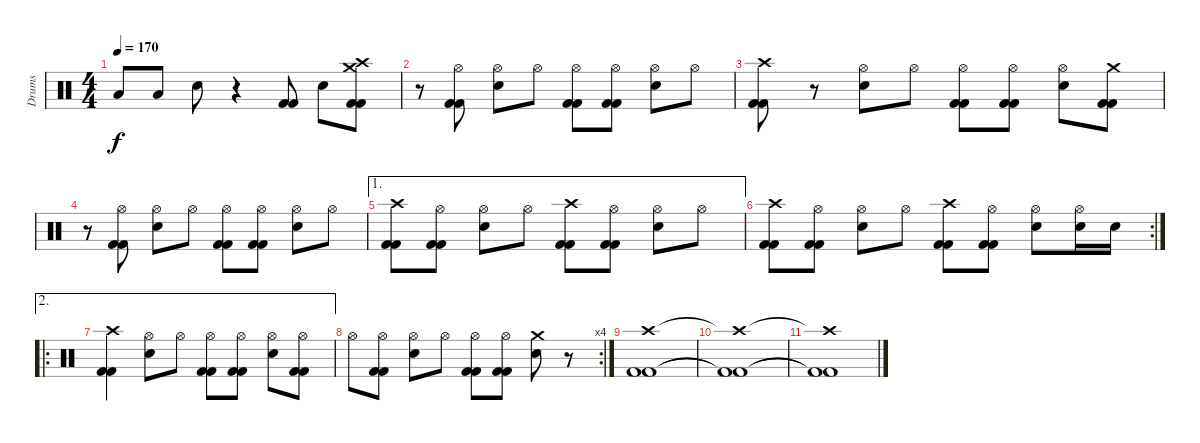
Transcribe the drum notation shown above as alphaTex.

\track ("Drums" "Drums") {instrument percussion}
\staff {score}
\articulation defaults
\ts (4 4)
\tempo 170
\clef neutral
\ks c "Low Tom (hit)".8{dy f} "Low Tom (hit)".8 "Snare (hit) 2".8
r.4 ("Kick (hit) 2" "Kick (hit) 2").8 "Snare (hit) 2".8 ("Crash high (hit)" "Crash medium (hit)" "Kick (hit) 2" "Kick (hit) 2").8 |
r.8 ("Hi-Hat (open)" "Kick (hit) 2" "Kick (hit) 2").8 ("Hi-Hat (open)" "Snare (hit) 2").8 "Hi-Hat (open)".8 ("Hi-Hat (open)" "Kick (hit) 2" "Kick (hit) 2").8 ("Hi-Hat (open)" "Kick (hit) 2" "Kick (hit) 2").8 ("Hi-Hat (open)" "Snare (hit) 2").8 "Hi-Hat (open)".8 |
("Crash high (hit)" "Kick (hit) 2" "Kick (hit) 2").8 r.8 ("Hi-Hat (open)" "Snare (hit) 2").8 "Hi-Hat (open)".8 ("Hi-Hat (open)" "Kick (hit) 2" "Kick (hit) 2").8 ("Hi-Hat (open)" "Kick (hit) 2" "Kick (hit) 2").8 ("Hi-Hat (open)" "Snare (hit) 2").8 ("Crash medium (hit)" "Kick (hit) 2" "Kick (hit) 2").8 |
r.8 ("Hi-Hat (open)" "Kick (hit) 2" "Kick (hit) 2").8 ("Hi-Hat (open)" "Snare (hit) 2").8 "Hi-Hat (open)".8 ("Hi-Hat (open)" "Kick (hit) 2" "Kick (hit) 2").8 ("Hi-Hat (open)" "Kick (hit) 2" "Kick (hit) 2").8 ("Hi-Hat (open)" "Snare (hit) 2").8 "Hi-Hat (open)".8 |
\ae 1
("Crash high (hit)" "Kick (hit) 2" "Kick (hit) 2").8 ("Hi-Hat (open)" "Kick (hit) 2" "Kick (hit) 2").8 ("Hi-Hat (open)" "Snare (hit) 2").8 "Hi-Hat (open)".8 ("Crash high (hit)" "Kick (hit) 2" "Kick (hit) 2").8 ("Hi-Hat (open)" "Kick (hit) 2" "Kick (hit) 2").8 ("Hi-Hat (open)" "Snare (hit) 2").8 "Hi-Hat (open)".8 |
\rc 2
("Crash high (hit)" "Kick (hit) 2" "Kick (hit) 2").8 ("Hi-Hat (open)" "Kick (hit) 2" "Kick (hit) 2").8 ("Hi-Hat (open)" "Snare (hit) 2").8 "Hi-Hat (open)".8 ("Crash high (hit)" "Kick (hit) 2" "Kick (hit) 2").8 ("Hi-Hat (open)" "Kick (hit) 2" "Kick (hit) 2").8 ("Hi-Hat (open)" "Snare (hit) 2").8 ("Hi-Hat (open)" "Snare (hit) 2").16 "Snare (hit) 2".16 |
\ae 2
\ro
("Crash high (hit)" "Kick (hit) 2" "Kick (hit) 2").4 ("Hi-Hat (open)" "Snare (hit) 2").8 "Hi-Hat (open)".8 ("Hi-Hat (open)" "Kick (hit) 2" "Kick (hit) 2").8 ("Hi-Hat (open)" "Kick (hit) 2" "Kick (hit) 2").8 ("Hi-Hat (open)" "Snare (hit) 2").8 ("Hi-Hat (open)" "Kick (hit) 2" "Kick (hit) 2").8 |
\rc 4 "Hi-Hat (open)".8
("Hi-Hat (open)" "Kick (hit) 2" "Kick (hit) 2").8 ("Hi-Hat (open)" "Snare (hit) 2").8 "Hi-Hat (open)".8 ("Hi-Hat (open)" "Kick (hit) 2" "Kick (hit) 2").8 ("Hi-Hat (open)" "Kick (hit) 2" "Kick (hit) 2").8 ("Crash medium (hit)" "Snare (hit) 2").8 r.8 |
("Crash high (hit)" "Kick (hit) 2" "Kick (hit) 2").1 |
("Crash high (hit)"{t} "Kick (hit) 2"{t} "Kick (hit) 2"{t}).1 |
("Crash high (hit)"{t} "Kick (hit) 2"{t} "Kick (hit) 2"{t}).1
